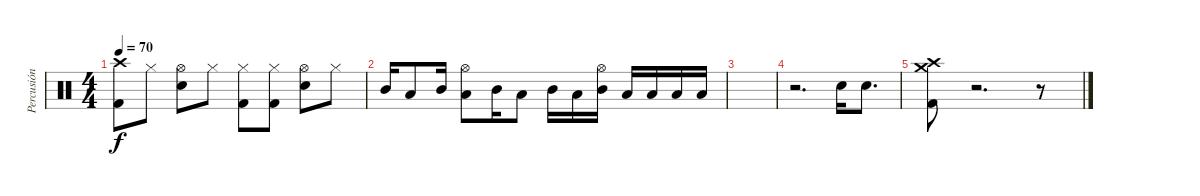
\track ("Percusión" "Percusión") {instrument percussion}
\staff {score}
\articulation defaults
\ts (4 4)
\tempo 70
\clef neutral
\ks c
("Crash high (hit)" "Kick (hit) 2").8{dy f} "Hi-Hat (closed)".8 ("Hi-Hat (open)" "Snare (hit) 2").8 "Hi-Hat (closed)".8 ("Hi-Hat (closed)" "Kick (hit) 2").8 ("Hi-Hat (closed)" "Kick (hit) 2").8 ("Hi-Hat (open)" "Snare (hit) 2").8 "Hi-Hat (closed)".8 |
"Mid Tom (hit)".16 "Low Tom (hit)".8 "Mid Tom (hit)".16 ("Hi-Hat (open)" "Low Tom (hit)").8 "Mid Tom (hit)".16 "Low Tom (hit)".8 "Mid Tom (hit)".16 "Low Tom (hit)".16 ("Hi-Hat (open)" "Mid Tom (hit)").16 "Low Tom (hit)".16 "Low Tom (hit)".16 "Low Tom (hit)".16 "Low Tom (hit)".16 |
|
r.2{d} "Snare (hit) 2".16 "Snare (hit) 2".8{d} |
("Crash medium (hit)" "Crash high (hit)" "Kick (hit) 2").8 r.2{d} r.8
